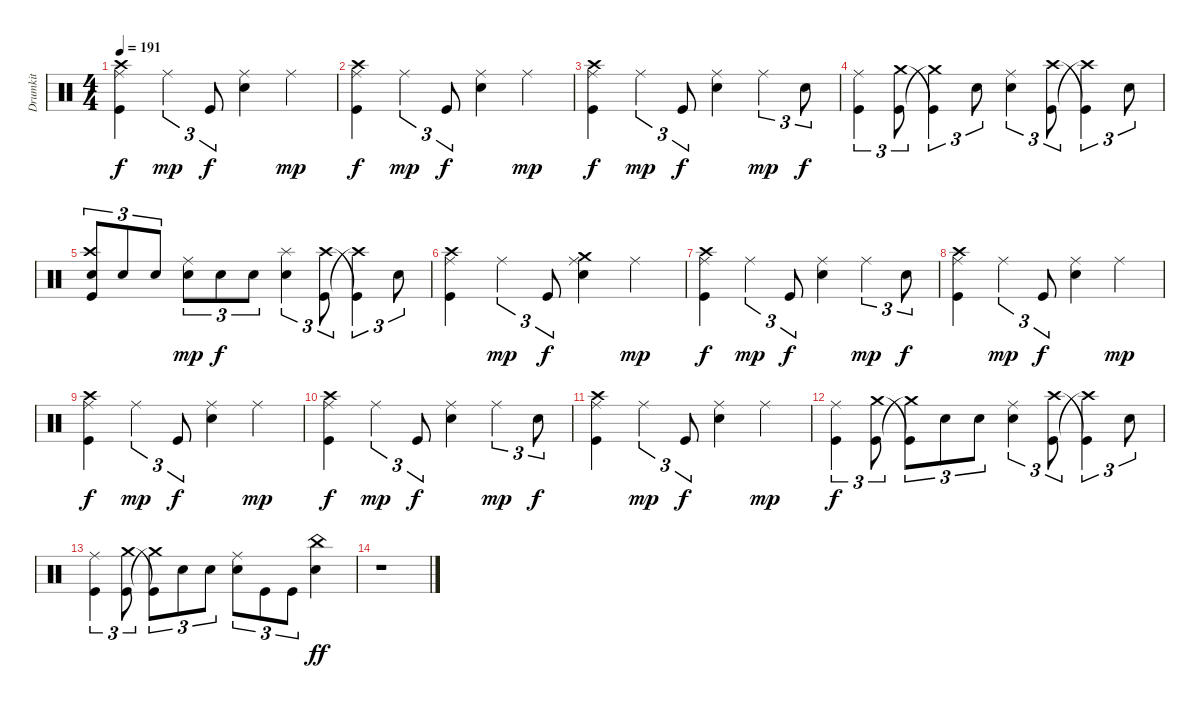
\track ("Drumkit" "Drumkit") {instrument percussion}
\staff {score}
\articulation defaults
\ts (4 4)
\tempo 191
\clef neutral
\ks c
("Kick (hit)" "Crash high (hit)" "Ride (middle)").4{dy f} "Ride (middle)".4{tu (3 2) dy mp} "Kick (hit)".8{tu (3 2) dy f} ("Snare (hit) 2" "Ride (middle)").4 "Ride (middle)".4{dy mp} |
("Kick (hit)" "Crash high (hit)" "Ride (middle)").4{dy f} "Ride (middle)".4{tu (3 2) dy mp} "Kick (hit)".8{tu (3 2) dy f} ("Snare (hit) 2" "Ride (middle)").4 "Ride (middle)".4{dy mp} |
("Kick (hit)" "Crash high (hit)" "Ride (middle)").4{dy f} "Ride (middle)".4{tu (3 2) dy mp} "Kick (hit)".8{tu (3 2) dy f} ("Snare (hit) 2" "Ride (middle)").4 "Ride (middle)".4{tu (3 2) dy mp} "Snare (hit) 2".8{tu (3 2) dy f} |
("Kick (hit)" "Ride (middle)").4{tu (3 2)} ("Kick (hit)" "Crash medium (hit)").8{tu (3 2)} ("Crash medium (hit)"{t} "Kick (hit)"{t}).4{tu (3 2)} "Snare (hit) 2".8{tu (3 2)} ("Snare (hit) 2" "Ride (middle)").4{tu (3 2)} ("Kick (hit)" "Crash high (hit)").8{tu (3 2)} ("Crash high (hit)"{t} "Kick (hit)"{t}).4{tu (3 2)} "Snare (hit) 2".8{tu (3 2)} |
("Kick (hit)" "Crash high (hit)" "Snare (hit) 2").8{tu (3 2)} "Snare (hit) 2".8{tu (3 2)} "Snare (hit) 2".8{tu (3 2)} ("Ride (middle)" "Snare (hit) 2").8{tu (3 2) dy mp} "Snare (hit) 2".8{tu (3 2) dy f} "Snare (hit) 2".8{tu (3 2)} ("Snare (hit) 2" "Splash (hit)").4{tu (3 2)} ("Kick (hit)" "Crash high (hit)").8{tu (3 2)} ("Crash high (hit)"{t} "Kick (hit)"{t}).4{tu (3 2)} "Snare (hit) 2".8{tu (3 2)} |
("Kick (hit)" "Crash high (hit)" "Ride (middle)").4 "Ride (middle)".4{tu (3 2) dy mp} "Kick (hit)".8{tu (3 2) dy f} ("Snare (hit) 2" "Ride (middle)" "Crash medium (hit)").4 "Ride (middle)".4{dy mp} |
("Kick (hit)" "Crash high (hit)" "Ride (middle)").4{dy f} "Ride (middle)".4{tu (3 2) dy mp} "Kick (hit)".8{tu (3 2) dy f} ("Snare (hit) 2" "Ride (middle)").4 "Ride (middle)".4{tu (3 2) dy mp} "Snare (hit) 2".8{tu (3 2) dy f} |
("Kick (hit)" "Crash high (hit)" "Ride (middle)").4 "Ride (middle)".4{tu (3 2) dy mp} "Kick (hit)".8{tu (3 2) dy f} ("Snare (hit) 2" "Ride (middle)").4 "Ride (middle)".4{dy mp} |
("Kick (hit)" "Crash high (hit)" "Ride (middle)").4{dy f} "Ride (middle)".4{tu (3 2) dy mp} "Kick (hit)".8{tu (3 2) dy f} ("Snare (hit) 2" "Ride (middle)").4 "Ride (middle)".4{dy mp} |
("Kick (hit)" "Crash high (hit)" "Ride (middle)").4{dy f} "Ride (middle)".4{tu (3 2) dy mp} "Kick (hit)".8{tu (3 2) dy f} ("Snare (hit) 2" "Ride (middle)").4 "Ride (middle)".4{tu (3 2) dy mp} "Snare (hit) 2".8{tu (3 2) dy f} |
("Kick (hit)" "Crash high (hit)" "Ride (middle)").4 "Ride (middle)".4{tu (3 2) dy mp} "Kick (hit)".8{tu (3 2) dy f} ("Snare (hit) 2" "Ride (middle)").4 "Ride (middle)".4{dy mp} |
("Kick (hit)" "Ride (middle)").4{tu (3 2) dy f} ("Kick (hit)" "Crash medium (hit)").8{tu (3 2)} ("Crash medium (hit)"{t} "Kick (hit)"{t}).8{tu (3 2)} "Snare (hit) 2".8{tu (3 2)} "Snare (hit) 2".8{tu (3 2)} ("Snare (hit) 2" "Ride (middle)").4{tu (3 2)} ("Kick (hit)" "Crash high (hit)").8{tu (3 2)} ("Crash high (hit)"{t} "Kick (hit)"{t}).4{tu (3 2)} "Snare (hit) 2".8{tu (3 2)} |
("Kick (hit)" "Ride (middle)").4{tu (3 2)} ("Kick (hit)" "Crash medium (hit)").8{tu (3 2)} ("Crash medium (hit)"{t} "Kick (hit)"{t}).8{tu (3 2)} "Snare (hit) 2".8{tu (3 2)} "Snare (hit) 2".8{tu (3 2)} ("Snare (hit) 2" "Ride (middle)").8{tu (3 2)} "Kick (hit)".8{tu (3 2)} "Kick (hit)".8{tu (3 2)} ("Snare (hit) 2" "China (hit)").4{dy ff} |
r.1
